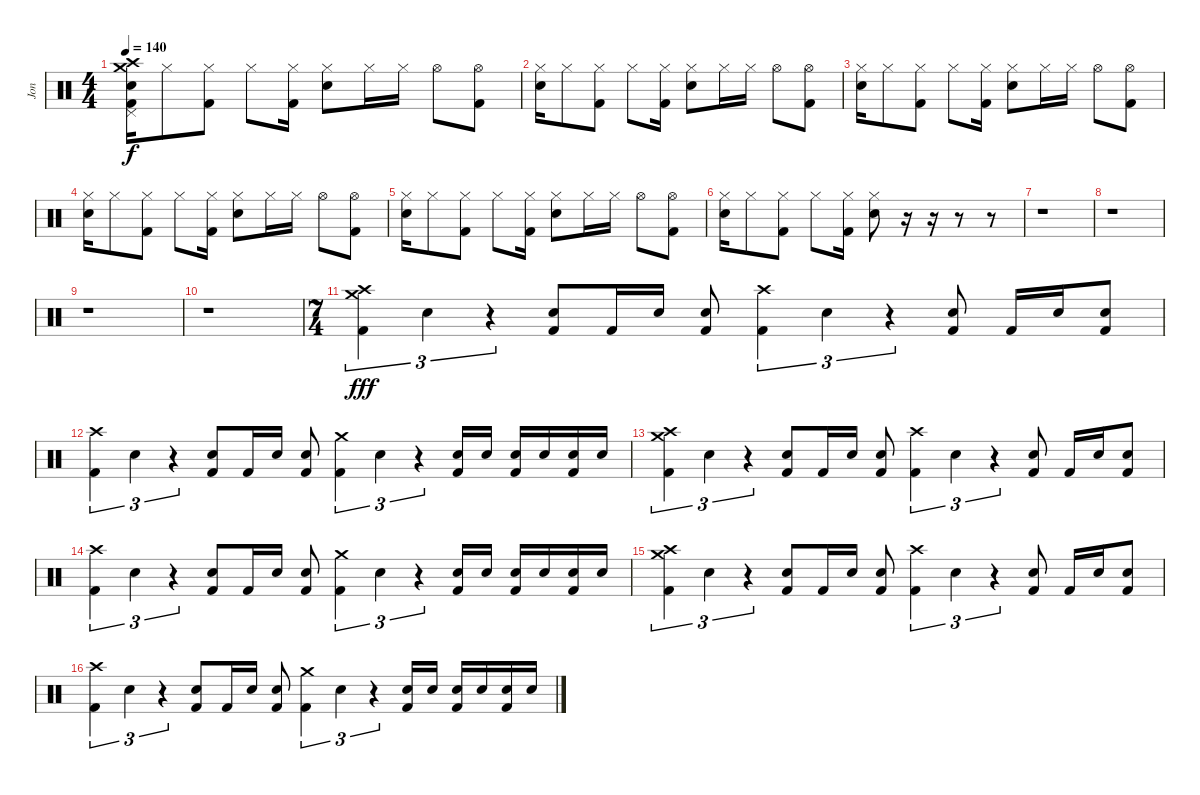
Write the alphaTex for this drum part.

\track ("Jon" "Jon") {instrument percussion}
\staff {score}
\articulation defaults
\ts (4 4)
\tempo 140
\clef neutral
\ks c
("Crash high (hit)" "Crash medium (hit)" "Pedal Hi-Hat (hit)" "Electric Snare (hit)" "Kick (hit) 2").16{dy f} "Hi-Hat (closed)".8 ("Hi-Hat (closed)" "Kick (hit) 2").8 "Hi-Hat (closed)".8 ("Hi-Hat (closed)" "Kick (hit) 2").16 ("Hi-Hat (closed)" "Snare (hit) 2").8 "Hi-Hat (closed)".16 "Hi-Hat (closed)".16 "Hi-Hat (open)".8 ("Hi-Hat (open)" "Kick (hit) 2").8 |
("Hi-Hat (closed)" "Electric Snare (hit)").16 "Hi-Hat (closed)".8 ("Hi-Hat (closed)" "Kick (hit) 2").8 "Hi-Hat (closed)".8 ("Hi-Hat (closed)" "Kick (hit) 2").16 ("Hi-Hat (closed)" "Snare (hit) 2").8 "Hi-Hat (closed)".16 "Hi-Hat (closed)".16 "Hi-Hat (open)".8 ("Hi-Hat (open)" "Kick (hit) 2").8 |
("Hi-Hat (closed)" "Electric Snare (hit)").16 "Hi-Hat (closed)".8 ("Hi-Hat (closed)" "Kick (hit) 2").8 "Hi-Hat (closed)".8 ("Hi-Hat (closed)" "Kick (hit) 2").16 ("Hi-Hat (closed)" "Snare (hit) 2").8 "Hi-Hat (closed)".16 "Hi-Hat (closed)".16 "Hi-Hat (open)".8 ("Hi-Hat (open)" "Kick (hit) 2").8 |
("Hi-Hat (closed)" "Electric Snare (hit)").16 "Hi-Hat (closed)".8 ("Hi-Hat (closed)" "Kick (hit) 2").8 "Hi-Hat (closed)".8 ("Hi-Hat (closed)" "Kick (hit) 2").16 ("Hi-Hat (closed)" "Snare (hit) 2").8 "Hi-Hat (closed)".16 "Hi-Hat (closed)".16 "Hi-Hat (open)".8 ("Hi-Hat (open)" "Kick (hit) 2").8 |
("Hi-Hat (closed)" "Electric Snare (hit)").16 "Hi-Hat (closed)".8 ("Hi-Hat (closed)" "Kick (hit) 2").8 "Hi-Hat (closed)".8 ("Hi-Hat (closed)" "Kick (hit) 2").16 ("Hi-Hat (closed)" "Snare (hit) 2").8 "Hi-Hat (closed)".16 "Hi-Hat (closed)".16 "Hi-Hat (open)".8 ("Hi-Hat (open)" "Kick (hit) 2").8 |
("Hi-Hat (closed)" "Electric Snare (hit)").16 "Hi-Hat (closed)".8 ("Hi-Hat (closed)" "Kick (hit) 2").8 "Hi-Hat (closed)".8 ("Hi-Hat (closed)" "Kick (hit) 2").16 ("Hi-Hat (closed)" "Snare (hit) 2").8 r.16 r.16 r.8 r.8 |
r.1 |
r.1 |
r.1 |
r.1 |
\ts (7 4)
("Crash medium (hit)" "Crash high (hit)" "Kick (hit) 2").4{tu (3 2) dy fff} "Snare (hit) 2".4{tu (3 2)} r.4{tu (3 2)} ("Snare (hit) 2" "Kick (hit) 2").8 "Kick (hit) 2".16 "Electric Snare (hit)".16 ("Snare (hit) 2" "Kick (hit) 2").8 ("Crash high (hit)" "Kick (hit) 2").4{tu (3 2)} "Snare (hit) 2".4{tu (3 2)} r.4{tu (3 2)} ("Snare (hit) 2" "Kick (hit) 2").8 "Kick (hit) 2".16 "Electric Snare (hit)".16 ("Snare (hit) 2" "Kick (hit) 2").8 |
("Crash high (hit)" "Kick (hit) 2").4{tu (3 2)} "Snare (hit) 2".4{tu (3 2)} r.4{tu (3 2)} ("Snare (hit) 2" "Kick (hit) 2").8 "Kick (hit) 2".16 "Electric Snare (hit)".16 ("Snare (hit) 2" "Kick (hit) 2").8 ("Crash medium (hit)" "Kick (hit) 2").4{tu (3 2)} "Snare (hit) 2".4{tu (3 2)} r.4{tu (3 2)} ("Snare (hit) 2" "Kick (hit) 2").16 "Electric Snare (hit)".16 ("Snare (hit) 2" "Kick (hit) 2").16 "Electric Snare (hit)".16 ("Snare (hit) 2" "Kick (hit) 2").16 "Electric Snare (hit)".16 |
("Crash medium (hit)" "Crash high (hit)" "Kick (hit) 2").4{tu (3 2)} "Snare (hit) 2".4{tu (3 2)} r.4{tu (3 2)} ("Snare (hit) 2" "Kick (hit) 2").8 "Kick (hit) 2".16 "Electric Snare (hit)".16 ("Snare (hit) 2" "Kick (hit) 2").8 ("Crash high (hit)" "Kick (hit) 2").4{tu (3 2)} "Snare (hit) 2".4{tu (3 2)} r.4{tu (3 2)} ("Snare (hit) 2" "Kick (hit) 2").8 "Kick (hit) 2".16 "Electric Snare (hit)".16 ("Snare (hit) 2" "Kick (hit) 2").8 |
("Crash high (hit)" "Kick (hit) 2").4{tu (3 2)} "Snare (hit) 2".4{tu (3 2)} r.4{tu (3 2)} ("Snare (hit) 2" "Kick (hit) 2").8 "Kick (hit) 2".16 "Electric Snare (hit)".16 ("Snare (hit) 2" "Kick (hit) 2").8 ("Crash medium (hit)" "Kick (hit) 2").4{tu (3 2)} "Snare (hit) 2".4{tu (3 2)} r.4{tu (3 2)} ("Snare (hit) 2" "Kick (hit) 2").16 "Electric Snare (hit)".16 ("Snare (hit) 2" "Kick (hit) 2").16 "Electric Snare (hit)".16 ("Snare (hit) 2" "Kick (hit) 2").16 "Electric Snare (hit)".16 |
("Crash medium (hit)" "Crash high (hit)" "Kick (hit) 2").4{tu (3 2)} "Snare (hit) 2".4{tu (3 2)} r.4{tu (3 2)} ("Snare (hit) 2" "Kick (hit) 2").8 "Kick (hit) 2".16 "Electric Snare (hit)".16 ("Snare (hit) 2" "Kick (hit) 2").8 ("Crash high (hit)" "Kick (hit) 2").4{tu (3 2)} "Snare (hit) 2".4{tu (3 2)} r.4{tu (3 2)} ("Snare (hit) 2" "Kick (hit) 2").8 "Kick (hit) 2".16 "Electric Snare (hit)".16 ("Snare (hit) 2" "Kick (hit) 2").8 |
("Crash high (hit)" "Kick (hit) 2").4{tu (3 2)} "Snare (hit) 2".4{tu (3 2)} r.4{tu (3 2)} ("Snare (hit) 2" "Kick (hit) 2").8 "Kick (hit) 2".16 "Electric Snare (hit)".16 ("Snare (hit) 2" "Kick (hit) 2").8 ("Crash medium (hit)" "Kick (hit) 2").4{tu (3 2)} "Snare (hit) 2".4{tu (3 2)} r.4{tu (3 2)} ("Snare (hit) 2" "Kick (hit) 2").16 "Electric Snare (hit)".16 ("Snare (hit) 2" "Kick (hit) 2").16 "Electric Snare (hit)".16 ("Snare (hit) 2" "Kick (hit) 2").16 "Electric Snare (hit)".16
